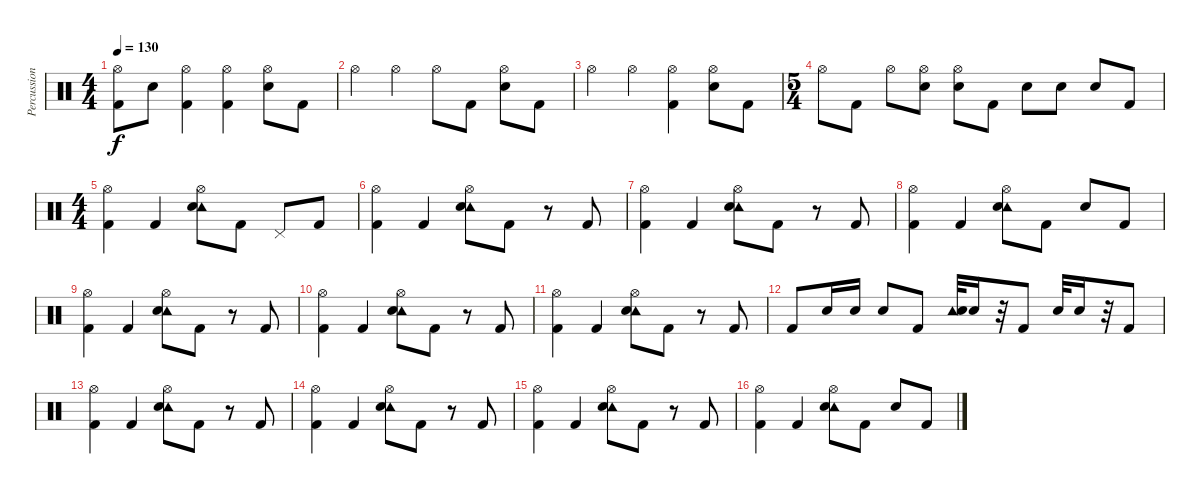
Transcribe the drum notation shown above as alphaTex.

\track ("Percussion" "Percussion") {instrument percussion}
\staff {score}
\articulation defaults
\ts (4 4)
\tempo 130
\clef neutral
\ks c
("Hi-Hat (open)" "Kick (hit) 2").8{dy f} "Snare (hit) 2".8 ("Hi-Hat (open)" "Kick (hit) 2").4 ("Hi-Hat (open)" "Kick (hit) 2").4 ("Hi-Hat (open)" "Snare (hit) 2").8 "Kick (hit) 2".8 |
"Hi-Hat (open)".4 "Hi-Hat (open)".4 "Hi-Hat (open)".8 "Kick (hit) 2".8 ("Hi-Hat (open)" "Snare (hit) 2").8 "Kick (hit) 2".8 |
"Hi-Hat (open)".4 "Hi-Hat (open)".4 ("Hi-Hat (open)" "Kick (hit) 2").4 ("Hi-Hat (open)" "Snare (hit) 2").8 "Kick (hit) 2".8 |
\ts (5 4)
"Hi-Hat (open)".8 "Kick (hit) 2".8 "Hi-Hat (open)".8 ("Hi-Hat (open)" "Snare (hit) 2").8 ("Hi-Hat (open)" "Snare (hit) 2").8 "Kick (hit) 2".8 "Snare (hit) 2".8 "Snare (hit) 2".8 "Snare (hit) 2".8 "Kick (hit) 2".8 |
\ts (4 4)
("Hi-Hat (open)" "Kick (hit) 2").4 "Kick (hit) 2".4 ("Hi-Hat (open)" "Tambourine (hit)" "Snare (hit) 2").8 "Kick (hit) 2".8 "Pedal Hi-Hat (hit)".8 "Kick (hit) 2".8 |
("Hi-Hat (open)" "Kick (hit) 2").4 "Kick (hit) 2".4 ("Hi-Hat (open)" "Tambourine (hit)" "Snare (hit) 2").8 "Kick (hit) 2".8 r.8 "Kick (hit) 2".8 |
("Hi-Hat (open)" "Kick (hit) 2").4 "Kick (hit) 2".4 ("Hi-Hat (open)" "Tambourine (hit)" "Snare (hit) 2").8 "Kick (hit) 2".8 r.8 "Kick (hit) 2".8 |
("Hi-Hat (open)" "Kick (hit) 2").4 "Kick (hit) 2".4 ("Hi-Hat (open)" "Tambourine (hit)" "Snare (hit) 2").8 "Kick (hit) 2".8 "Snare (hit) 2".8 "Kick (hit) 2".8 |
("Hi-Hat (open)" "Kick (hit) 2").4 "Kick (hit) 2".4 ("Hi-Hat (open)" "Tambourine (hit)" "Snare (hit) 2").8 "Kick (hit) 2".8 r.8 "Kick (hit) 2".8 |
("Hi-Hat (open)" "Kick (hit) 2").4 "Kick (hit) 2".4 ("Hi-Hat (open)" "Tambourine (hit)" "Snare (hit) 2").8 "Kick (hit) 2".8 r.8 "Kick (hit) 2".8 |
("Hi-Hat (open)" "Kick (hit) 2").4 "Kick (hit) 2".4 ("Hi-Hat (open)" "Tambourine (hit)" "Snare (hit) 2").8 "Kick (hit) 2".8 r.8 "Kick (hit) 2".8 |
"Kick (hit) 2".8 "Snare (hit) 2".16 "Snare (hit) 2".16 "Snare (hit) 2".8 "Kick (hit) 2".8 ("Tambourine (hit)" "Snare (hit) 2").32 "Snare (hit) 2".16 r.32 "Kick (hit) 2".8 "Snare (hit) 2".32 "Snare (hit) 2".16 r.32 "Kick (hit) 2".8 |
("Hi-Hat (open)" "Kick (hit) 2").4 "Kick (hit) 2".4 ("Hi-Hat (open)" "Tambourine (hit)" "Snare (hit) 2").8 "Kick (hit) 2".8 r.8 "Kick (hit) 2".8 |
("Hi-Hat (open)" "Kick (hit) 2").4 "Kick (hit) 2".4 ("Hi-Hat (open)" "Tambourine (hit)" "Snare (hit) 2").8 "Kick (hit) 2".8 r.8 "Kick (hit) 2".8 |
("Hi-Hat (open)" "Kick (hit) 2").4 "Kick (hit) 2".4 ("Hi-Hat (open)" "Tambourine (hit)" "Snare (hit) 2").8 "Kick (hit) 2".8 r.8 "Kick (hit) 2".8 |
("Hi-Hat (open)" "Kick (hit) 2").4 "Kick (hit) 2".4 ("Hi-Hat (open)" "Tambourine (hit)" "Snare (hit) 2").8 "Kick (hit) 2".8 "Snare (hit) 2".8 "Kick (hit) 2".8
